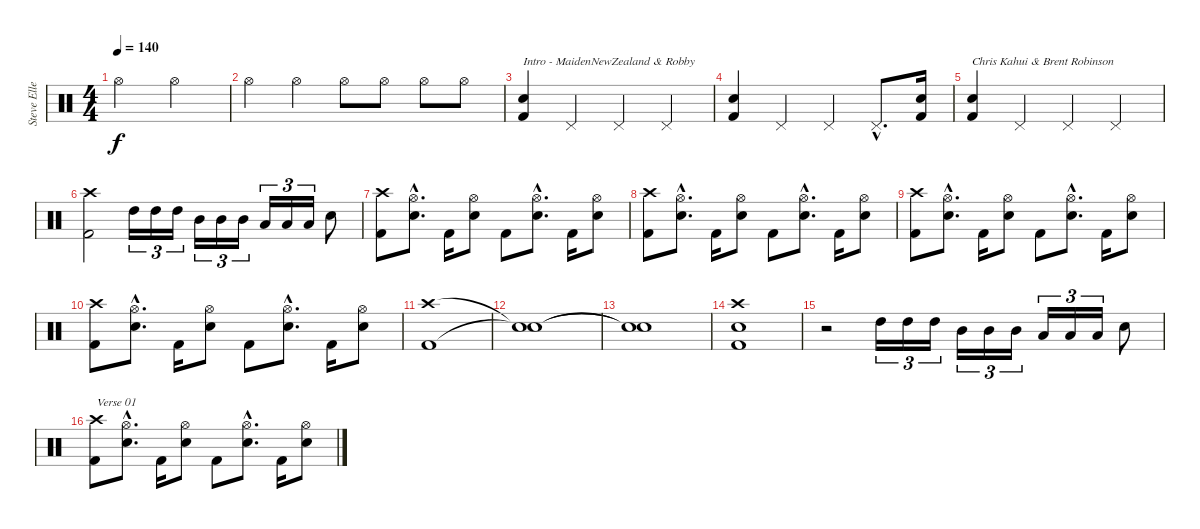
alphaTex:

\track ("Steve Ellett" "Steve Elle") {instrument percussion}
\staff {score}
\articulation defaults
\ts (4 4)
\tempo 140
\clef neutral
\ks c "Hi-Hat (open)".2{dy f} "Hi-Hat (open)".2
|
"Hi-Hat (open)".4 "Hi-Hat (open)".4 "Hi-Hat (open)".8 "Hi-Hat (open)".8 "Hi-Hat (open)".8 "Hi-Hat (open)".8 |
("Snare (hit) 2" "Kick (hit) 2").4{txt "Intro - MaidenNewZealand & Robby"} "Pedal Hi-Hat (hit)".4 "Pedal Hi-Hat (hit)".4 "Pedal Hi-Hat (hit)".4 |
("Snare (hit) 2" "Kick (hit) 2").4 "Pedal Hi-Hat (hit)".4 "Pedal Hi-Hat (hit)".4 "Pedal Hi-Hat (hit)"{hac}.8{d} ("Snare (hit) 2" "Kick (hit) 2").16 |
("Snare (hit) 2" "Kick (hit) 2").4{txt "Chris Kahui & Brent Robinson"} "Pedal Hi-Hat (hit)".4 "Pedal Hi-Hat (hit)".4 "Pedal Hi-Hat (hit)".4 |
("Crash high (hit)" "Kick (hit) 2").2 "High Tom (hit)".16{tu (3 2)} "High Tom (hit)".16{tu (3 2)} "High Tom (hit)".16{tu (3 2)} "Mid Tom (hit)".16{tu (3 2)} "Mid Tom (hit)".16{tu (3 2)} "Mid Tom (hit)".16{tu (3 2)} "Low Tom (hit)".16{tu (3 2)} "Low Tom (hit)".16{tu (3 2)} "Low Tom (hit)".16{tu (3 2)} "Snare (hit) 2".8 |
("Crash high (hit)" "Kick (hit) 2").8 ("Hi-Hat (open)"{hac} "Snare (hit) 2"{hac}).8{d} "Kick (hit) 2".16 ("Hi-Hat (open)" "Snare (hit) 2").8 "Kick (hit) 2".8 ("Hi-Hat (open)"{hac} "Snare (hit) 2"{hac}).8{d} "Kick (hit) 2".16 ("Hi-Hat (open)" "Snare (hit) 2").8 |
("Crash high (hit)" "Kick (hit) 2").8 ("Hi-Hat (open)"{hac} "Snare (hit) 2"{hac}).8{d} "Kick (hit) 2".16 ("Hi-Hat (open)" "Snare (hit) 2").8 "Kick (hit) 2".8 ("Hi-Hat (open)"{hac} "Snare (hit) 2"{hac}).8{d} "Kick (hit) 2".16 ("Hi-Hat (open)" "Snare (hit) 2").8 |
("Crash high (hit)" "Kick (hit) 2").8 ("Hi-Hat (open)"{hac} "Snare (hit) 2"{hac}).8{d} "Kick (hit) 2".16 ("Hi-Hat (open)" "Snare (hit) 2").8 "Kick (hit) 2".8 ("Hi-Hat (open)"{hac} "Snare (hit) 2"{hac}).8{d} "Kick (hit) 2".16 ("Hi-Hat (open)" "Snare (hit) 2").8 |
("Crash high (hit)" "Kick (hit) 2").8 ("Hi-Hat (open)"{hac} "Snare (hit) 2"{hac}).8{d} "Kick (hit) 2".16 ("Hi-Hat (open)" "Snare (hit) 2").8 "Kick (hit) 2".8 ("Hi-Hat (open)"{hac} "Snare (hit) 2"{hac}).8{d} "Kick (hit) 2".16 ("Hi-Hat (open)" "Snare (hit) 2").8 |
("Crash high (hit)" "Kick (hit) 2").1 |
("Snare (hit)"{t} "Snare (hit)"{t}).1 |
("Snare (hit)"{t} "Snare (hit)"{t}).1 |
("Crash high (hit)" "Snare (hit) 2" "Kick (hit) 2").1 |
r.2 "High Tom (hit)".16{tu (3 2)} "High Tom (hit)".16{tu (3 2)} "High Tom (hit)".16{tu (3 2)} "Mid Tom (hit)".16{tu (3 2)} "Mid Tom (hit)".16{tu (3 2)} "Mid Tom (hit)".16{tu (3 2)} "Low Tom (hit)".16{tu (3 2)} "Low Tom (hit)".16{tu (3 2)} "Low Tom (hit)".16{tu (3 2)} "Snare (hit) 2".8 |
("Crash high (hit)" "Kick (hit) 2").8{txt "Verse 01"} ("Hi-Hat (open)"{hac} "Snare (hit) 2"{hac}).8{d} "Kick (hit) 2".16 ("Hi-Hat (open)" "Snare (hit) 2").8 "Kick (hit) 2".8 ("Hi-Hat (open)"{hac} "Snare (hit) 2"{hac}).8{d} "Kick (hit) 2".16 ("Hi-Hat (open)" "Snare (hit) 2").8
